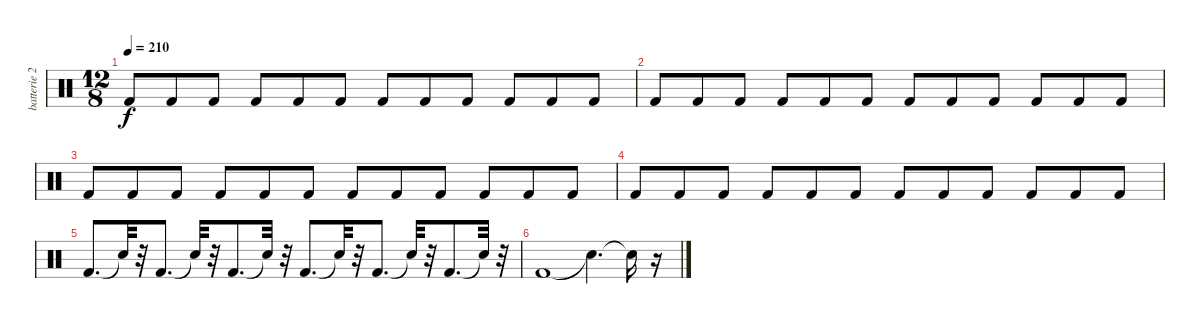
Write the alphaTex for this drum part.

\track ("batterie 2" "batterie 2") {instrument percussion}
\staff {score}
\articulation defaults
\ts (12 8)
\tempo 210
\clef neutral
\ks c "Kick (hit) 2".8{dy f} "Kick (hit) 2".8 "Kick (hit) 2".8 "Kick (hit) 2".8 "Kick (hit) 2".8 "Kick (hit) 2".8 "Kick (hit) 2".8 "Kick (hit) 2".8 "Kick (hit) 2".8 "Kick (hit) 2".8 "Kick (hit) 2".8 "Kick (hit) 2".8
|
"Kick (hit) 2".8 "Kick (hit) 2".8 "Kick (hit) 2".8 "Kick (hit) 2".8 "Kick (hit) 2".8 "Kick (hit) 2".8 "Kick (hit) 2".8 "Kick (hit) 2".8 "Kick (hit) 2".8 "Kick (hit) 2".8 "Kick (hit) 2".8 "Kick (hit) 2".8 |
"Kick (hit) 2".8 "Kick (hit) 2".8 "Kick (hit) 2".8 "Kick (hit) 2".8 "Kick (hit) 2".8 "Kick (hit) 2".8 "Kick (hit) 2".8 "Kick (hit) 2".8 "Kick (hit) 2".8 "Kick (hit) 2".8 "Kick (hit) 2".8 "Kick (hit) 2".8 |
"Kick (hit) 2".8 "Kick (hit) 2".8 "Kick (hit) 2".8 "Kick (hit) 2".8 "Kick (hit) 2".8 "Kick (hit) 2".8 "Kick (hit) 2".8 "Kick (hit) 2".8 "Kick (hit) 2".8 "Kick (hit) 2".8 "Kick (hit) 2".8 "Kick (hit) 2".8 |
"Kick (hit) 2".8{d} "Snare (hit)"{t}.32 r.32 "Kick (hit) 2".8{d} "Snare (hit)"{t}.32 r.32 "Kick (hit) 2".8{d} "Snare (hit)"{t}.32 r.32 "Kick (hit) 2".8{d} "Snare (hit)"{t}.32 r.32 "Kick (hit) 2".8{d} "Snare (hit)"{t}.32 r.32 "Kick (hit) 2".8{d} "Snare (hit)"{t}.32 r.32 |
"Kick (hit) 2".1 "Snare (hit)"{t}.4{d} "Snare (hit)"{t}.16 r.16
